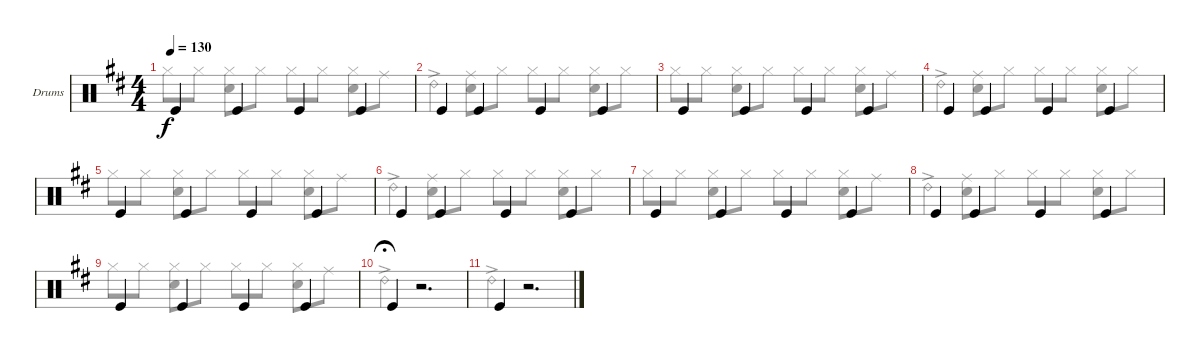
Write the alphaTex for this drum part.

\bracketExtendMode groupsimilarinstruments
\firstSystemTrackNameOrientation horizontal
\otherSystemsTrackNameOrientation horizontal
\track ("Drumkit" "Drums") {instrument percussion}
\staff {score}
\articulation defaults
\voice
\ts (4 4)
\tempo 130
\clef neutral
\scale
1.05044
\ks d "Kick (hit)".4{dy f} "Kick (hit)".4 "Kick (hit)".4 "Kick (hit)".4
|
\scale
0.949559 "Kick (hit)".4 "Kick (hit)".4 "Kick (hit)".4 "Kick (hit)".4 |
\scale
1.05044 "Kick (hit)".4 "Kick (hit)".4 "Kick (hit)".4 "Kick (hit)".4 |
\scale
0.949559 "Kick (hit)".4 "Kick (hit)".4 "Kick (hit)".4 "Kick (hit)".4 |
\scale
1.05044 "Kick (hit)".4 "Kick (hit)".4 "Kick (hit)".4 "Kick (hit)".4 |
\scale
0.949559 "Kick (hit)".4 "Kick (hit)".4 "Kick (hit)".4 "Kick (hit)".4 |
\scale
1.05044 "Kick (hit)".4 "Kick (hit)".4 "Kick (hit)".4 "Kick (hit)".4 |
\scale
0.949559 "Kick (hit)".4 "Kick (hit)".4 "Kick (hit)".4 "Kick (hit)".4 |
\scale
1.05044 "Kick (hit)".4 "Kick (hit)".4 "Kick (hit)".4 "Kick (hit)".4 |
\scale
0.949559 "Kick (hit)".4{fermata (medium 1)} r.2{d} |
\scale
1.05044 "Kick (hit)".4 r.2{d}
\voice
\clef neutral
\ottava regular
\simile none
\scale
1.05044
\ks d "Hi-Hat (closed)".8{dy f} "Hi-Hat (closed)".8
("Hi-Hat (closed)" "Snare (hit) 2").8 "Hi-Hat (closed)".8 "Hi-Hat (closed)".8 "Hi-Hat (closed)".8 ("Hi-Hat (closed)" "Snare (hit) 2").8 "Ride (middle)".8 |
\scale
0.949559 "Ride (bell) 2"{ac}.4 ("Snare (hit) 2" "Ride (middle)").8 "Hi-Hat (closed)".8 "Hi-Hat (closed)".8 "Hi-Hat (closed)".8 ("Hi-Hat (closed)" "Snare (hit) 2").8 "Hi-Hat (closed)".8 |
\scale
1.05044 "Hi-Hat (closed)".8 "Hi-Hat (closed)".8 ("Hi-Hat (closed)" "Snare (hit) 2").8 "Hi-Hat (closed)".8 "Hi-Hat (closed)".8 "Hi-Hat (closed)".8 ("Hi-Hat (closed)" "Snare (hit) 2").8 "Ride (middle)".8 |
\scale
0.949559 "Ride (bell) 2"{ac}.4 ("Snare (hit) 2" "Ride (middle)").8 "Hi-Hat (closed)".8 "Hi-Hat (closed)".8 "Hi-Hat (closed)".8 ("Hi-Hat (closed)" "Snare (hit) 2").8 "Hi-Hat (closed)".8 |
\scale
1.05044 "Hi-Hat (closed)".8 "Hi-Hat (closed)".8 ("Hi-Hat (closed)" "Snare (hit) 2").8 "Hi-Hat (closed)".8 "Hi-Hat (closed)".8 "Hi-Hat (closed)".8 ("Hi-Hat (closed)" "Snare (hit) 2").8 "Ride (middle)".8 |
\scale
0.949559 "Ride (bell) 2"{ac}.4 ("Snare (hit) 2" "Ride (middle)").8 "Hi-Hat (closed)".8 "Hi-Hat (closed)".8 "Hi-Hat (closed)".8 ("Hi-Hat (closed)" "Snare (hit) 2").8 "Hi-Hat (closed)".8 |
\scale
1.05044 "Hi-Hat (closed)".8 "Hi-Hat (closed)".8 ("Hi-Hat (closed)" "Snare (hit) 2").8 "Hi-Hat (closed)".8 "Hi-Hat (closed)".8 "Hi-Hat (closed)".8 ("Hi-Hat (closed)" "Snare (hit) 2").8 "Ride (middle)".8 |
\scale
0.949559 "Ride (bell) 2"{ac}.4 ("Snare (hit) 2" "Ride (middle)").8 "Hi-Hat (closed)".8 "Hi-Hat (closed)".8 "Hi-Hat (closed)".8 ("Hi-Hat (closed)" "Snare (hit) 2").8 "Hi-Hat (closed)".8 |
\scale
1.05044 "Hi-Hat (closed)".8 "Hi-Hat (closed)".8 ("Hi-Hat (closed)" "Snare (hit) 2").8 "Hi-Hat (closed)".8 "Hi-Hat (closed)".8 "Hi-Hat (closed)".8 ("Hi-Hat (closed)" "Snare (hit) 2").8 "Ride (middle)".8 |
\scale
0.949559 "Ride (bell) 2"{ac}.4{fermata (medium 1)} r.2{d} |
\scale
1.05044 "Ride (bell) 2"{ac}.4 r.2{d}
